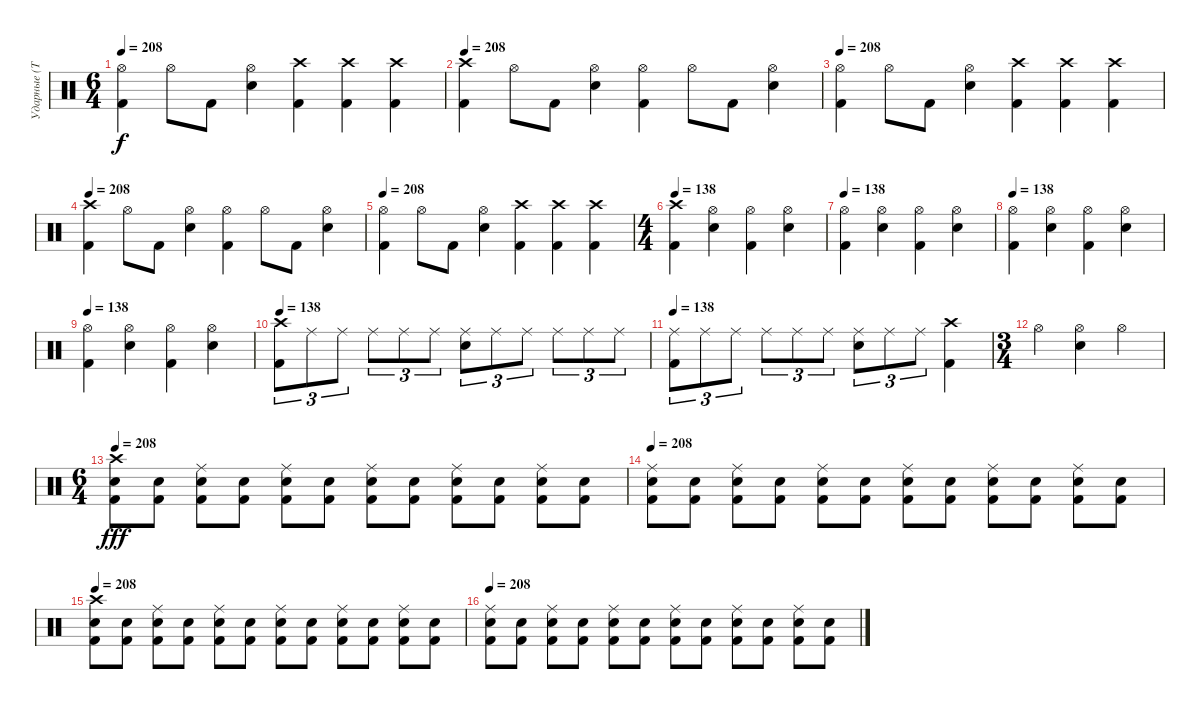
\track ("Ударные (Тьодальв)" "Ударные (Т") {instrument percussion}
\staff {score}
\articulation defaults
\ts (6 4)
\tempo 208
\clef neutral
\ks c
("Kick (hit) 2" "Hi-Hat (open)").4{dy f} "Hi-Hat (open)".8 "Kick (hit) 2".8 ("Snare (hit) 2" "Hi-Hat (open)").4 ("Kick (hit) 2" "Crash high (hit)").4 ("Kick (hit) 2" "Crash high (hit)").4 ("Kick (hit) 2" "Crash high (hit)").4 |
\tempo 208
("Kick (hit) 2" "Crash high (hit)").4 "Hi-Hat (open)".8 "Kick (hit) 2".8 ("Snare (hit) 2" "Hi-Hat (open)").4 ("Kick (hit) 2" "Hi-Hat (open)").4 "Hi-Hat (open)".8 "Kick (hit) 2".8 ("Snare (hit) 2" "Hi-Hat (open)").4 |
\tempo 208
("Kick (hit) 2" "Hi-Hat (open)").4 "Hi-Hat (open)".8 "Kick (hit) 2".8 ("Snare (hit) 2" "Hi-Hat (open)").4 ("Kick (hit) 2" "Crash high (hit)").4 ("Kick (hit) 2" "Crash high (hit)").4 ("Kick (hit) 2" "Crash high (hit)").4 |
\tempo 208
("Kick (hit) 2" "Crash high (hit)").4 "Hi-Hat (open)".8 "Kick (hit) 2".8 ("Snare (hit) 2" "Hi-Hat (open)").4 ("Kick (hit) 2" "Hi-Hat (open)").4 "Hi-Hat (open)".8 "Kick (hit) 2".8 ("Snare (hit) 2" "Hi-Hat (open)").4 |
\tempo 208
("Kick (hit) 2" "Hi-Hat (open)").4 "Hi-Hat (open)".8 "Kick (hit) 2".8 ("Snare (hit) 2" "Hi-Hat (open)").4 ("Kick (hit) 2" "Crash high (hit)").4 ("Kick (hit) 2" "Crash high (hit)").4 ("Kick (hit) 2" "Crash high (hit)").4 |
\ts (4 4)
\tempo 138
("Kick (hit) 2" "Crash high (hit)").4 ("Snare (hit) 2" "Hi-Hat (open)").4 ("Kick (hit) 2" "Hi-Hat (open)").4 ("Snare (hit) 2" "Hi-Hat (open)").4 |
\tempo 138
("Kick (hit) 2" "Hi-Hat (open)").4 ("Snare (hit) 2" "Hi-Hat (open)").4 ("Kick (hit) 2" "Hi-Hat (open)").4 ("Snare (hit) 2" "Hi-Hat (open)").4 |
\tempo 138
("Kick (hit) 2" "Hi-Hat (open)").4 ("Snare (hit) 2" "Hi-Hat (open)").4 ("Kick (hit) 2" "Hi-Hat (open)").4 ("Snare (hit) 2" "Hi-Hat (open)").4 |
\tempo 138
("Kick (hit) 2" "Hi-Hat (open)").4 ("Snare (hit) 2" "Hi-Hat (open)").4 ("Kick (hit) 2" "Hi-Hat (open)").4 ("Snare (hit) 2" "Hi-Hat (open)").4 |
\tempo 138
("Kick (hit) 2" "Crash high (hit)").8{tu (3 2)} "Ride (middle)".8{tu (3 2)} "Ride (middle)".8{tu (3 2)} "Ride (middle)".8{tu (3 2)} "Ride (middle)".8{tu (3 2)} "Ride (middle)".8{tu (3 2)} ("Snare (hit) 2" "Ride (middle)").8{tu (3 2)} "Ride (middle)".8{tu (3 2)} "Ride (middle)".8{tu (3 2)} "Ride (middle)".8{tu (3 2)} "Ride (middle)".8{tu (3 2)} "Ride (middle)".8{tu (3 2)} |
\tempo 138
("Kick (hit) 2" "Ride (middle)").8{tu (3 2)} "Ride (middle)".8{tu (3 2)} "Ride (middle)".8{tu (3 2)} "Ride (middle)".8{tu (3 2)} "Ride (middle)".8{tu (3 2)} "Ride (middle)".8{tu (3 2)} ("Snare (hit) 2" "Ride (middle)").8{tu (3 2)} "Ride (middle)".8{tu (3 2)} "Ride (middle)".8{tu (3 2)} ("Kick (hit) 2" "Crash high (hit)").4 |
\ts (3 4)
"Hi-Hat (open)".4 ("Snare (hit) 2" "Hi-Hat (open)").4 "Hi-Hat (open)".4 |
\ts (6 4)
\tempo 208
("Kick (hit) 2" "Snare (hit) 2" "Crash high (hit)").8{dy fff} ("Kick (hit) 2" "Snare (hit) 2").8 ("Kick (hit) 2" "Snare (hit) 2" "Ride (middle)").8 ("Kick (hit) 2" "Snare (hit) 2").8 ("Kick (hit) 2" "Snare (hit) 2" "Ride (middle)").8 ("Kick (hit) 2" "Snare (hit) 2").8 ("Kick (hit) 2" "Snare (hit) 2" "Ride (middle)").8 ("Kick (hit) 2" "Snare (hit) 2").8 ("Kick (hit) 2" "Snare (hit) 2" "Ride (middle)").8 ("Kick (hit) 2" "Snare (hit) 2").8 ("Kick (hit) 2" "Snare (hit) 2" "Ride (middle)").8 ("Kick (hit) 2" "Snare (hit) 2").8 |
\tempo 208
("Kick (hit) 2" "Snare (hit) 2" "Ride (middle)").8 ("Kick (hit) 2" "Snare (hit) 2").8 ("Kick (hit) 2" "Snare (hit) 2" "Ride (middle)").8 ("Kick (hit) 2" "Snare (hit) 2").8 ("Kick (hit) 2" "Snare (hit) 2" "Ride (middle)").8 ("Kick (hit) 2" "Snare (hit) 2").8 ("Kick (hit) 2" "Snare (hit) 2" "Ride (middle)").8 ("Kick (hit) 2" "Snare (hit) 2").8 ("Kick (hit) 2" "Snare (hit) 2" "Ride (middle)").8 ("Kick (hit) 2" "Snare (hit) 2").8 ("Kick (hit) 2" "Snare (hit) 2" "Ride (middle)").8 ("Kick (hit) 2" "Snare (hit) 2").8 |
\tempo 208
("Kick (hit) 2" "Snare (hit) 2" "Crash high (hit)").8 ("Kick (hit) 2" "Snare (hit) 2").8 ("Kick (hit) 2" "Snare (hit) 2" "Ride (middle)").8 ("Kick (hit) 2" "Snare (hit) 2").8 ("Kick (hit) 2" "Snare (hit) 2" "Ride (middle)").8 ("Kick (hit) 2" "Snare (hit) 2").8 ("Kick (hit) 2" "Snare (hit) 2" "Ride (middle)").8 ("Kick (hit) 2" "Snare (hit) 2").8 ("Kick (hit) 2" "Snare (hit) 2" "Ride (middle)").8 ("Kick (hit) 2" "Snare (hit) 2").8 ("Kick (hit) 2" "Snare (hit) 2" "Ride (middle)").8 ("Kick (hit) 2" "Snare (hit) 2").8 |
\tempo 208
("Kick (hit) 2" "Snare (hit) 2" "Ride (middle)").8 ("Kick (hit) 2" "Snare (hit) 2").8 ("Kick (hit) 2" "Snare (hit) 2" "Ride (middle)").8 ("Kick (hit) 2" "Snare (hit) 2").8 ("Kick (hit) 2" "Snare (hit) 2" "Ride (middle)").8 ("Kick (hit) 2" "Snare (hit) 2").8 ("Kick (hit) 2" "Snare (hit) 2" "Ride (middle)").8 ("Kick (hit) 2" "Snare (hit) 2").8 ("Kick (hit) 2" "Snare (hit) 2" "Ride (middle)").8 ("Kick (hit) 2" "Snare (hit) 2").8 ("Kick (hit) 2" "Snare (hit) 2" "Ride (middle)").8 ("Kick (hit) 2" "Snare (hit) 2").8
